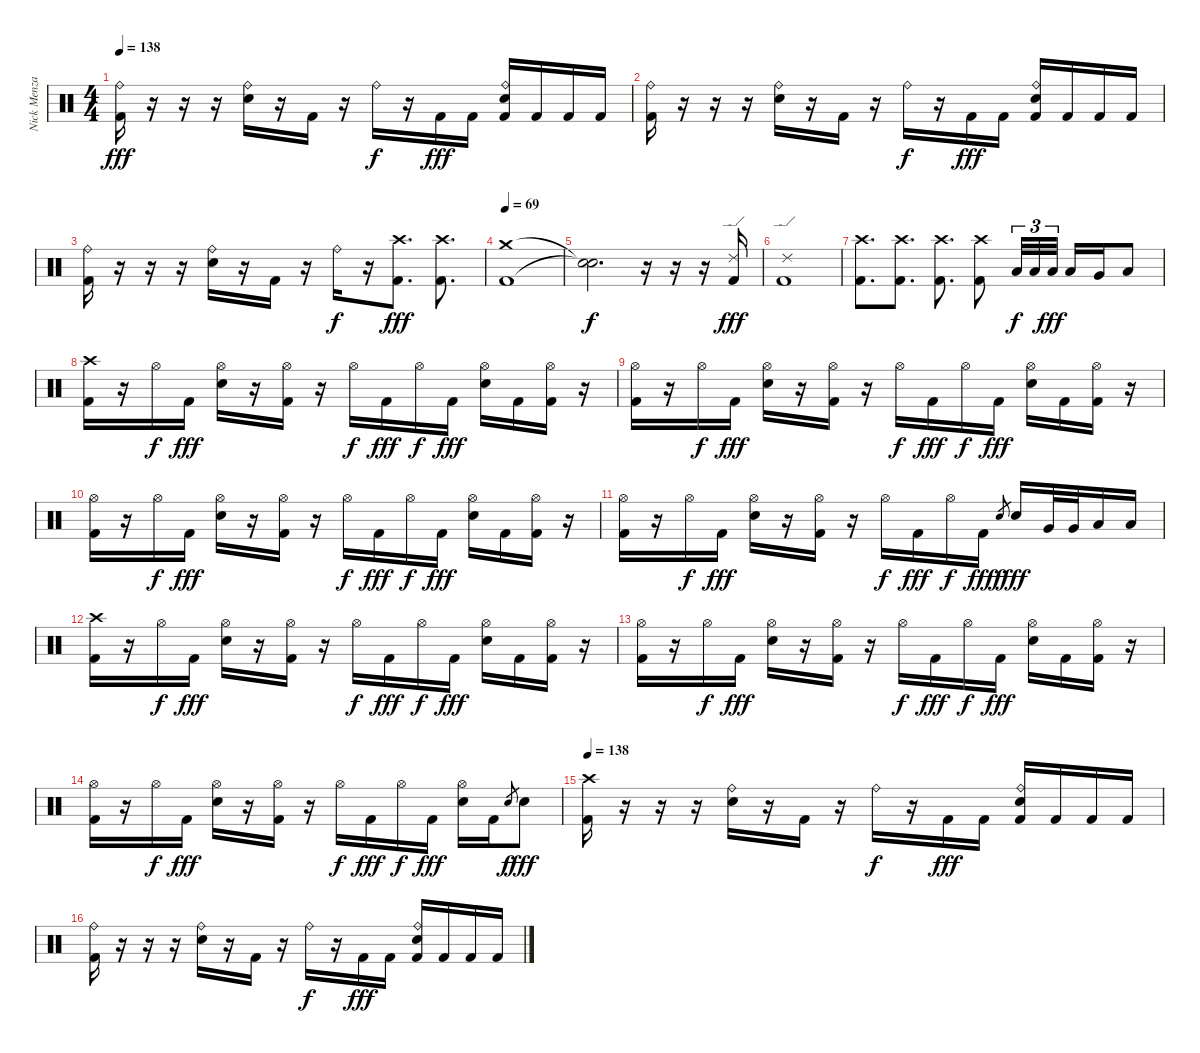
\track ("Nick Menza" "Nick Menza") {instrument percussion}
\staff {score}
\articulation defaults
\ts (4 4)
\tempo 138
\clef neutral
\ks c
("Kick (hit) 2" "Ride (bell)").16{dy fff} r.16 r.16 r.16 ("Electric Snare (hit)" "Ride (bell)").16 r.16 "Kick (hit) 2".16 r.16 "Ride (bell)".16{dy f} r.16 "Kick (hit) 2".16{dy fff} "Kick (hit) 2".16 ("Kick (hit) 2" "Electric Snare (hit)" "Ride (bell)").16 "Kick (hit) 2".16 "Kick (hit) 2".16 "Kick (hit) 2".16 |
("Kick (hit) 2" "Ride (bell)").16 r.16 r.16 r.16 ("Electric Snare (hit)" "Ride (bell)").16 r.16 "Kick (hit) 2".16 r.16 "Ride (bell)".16{dy f} r.16 "Kick (hit) 2".16{dy fff} "Kick (hit) 2".16 ("Kick (hit) 2" "Electric Snare (hit)" "Ride (bell)").16 "Kick (hit) 2".16 "Kick (hit) 2".16 "Kick (hit) 2".16 |
("Kick (hit) 2" "Ride (bell)").16 r.16 r.16 r.16 ("Electric Snare (hit)" "Ride (bell)").16 r.16 "Kick (hit) 2".16 r.16 "Ride (bell)".16{dy f} r.16 ("Kick (hit) 2" "Crash high (hit)").8{d dy fff} ("Kick (hit) 2" "Crash high (hit)").8{d} |
\tempo 69
("Kick (hit) 2" "Crash medium (hit)").1 |
("Snare (hit)"{t} "Snare (hit)"{t}).2{d dy f} r.16 r.16 r.16 ("Kick (hit) 2" "Ride (edge) 2").16{dy fff} |
("Kick (hit) 2" "Ride (edge) 2").1 |
("Kick (hit) 2" "Crash high (hit)").8{d} ("Kick (hit) 2" "Crash high (hit)").8{d} ("Kick (hit) 2" "Crash high (hit)").8{d} ("Kick (hit) 2" "Crash high (hit)").8 "Low Tom (hit)".32{tu (3 2) dy f} "Low Tom (hit)".32{tu (3 2)} "Low Tom (hit)".32{tu (3 2) dy fff} "Low Tom (hit)".16 "Very Low Tom (hit)".16 "Low Floor Tom (hit)".8 |
("Kick (hit) 2" "Crash high (hit)").16 r.16 "Hi-Hat (open)".16{dy f} "Kick (hit) 2".16{dy fff} ("Electric Snare (hit)" "Hi-Hat (open)").16 r.16 ("Kick (hit) 2" "Hi-Hat (open)").16 r.16 "Hi-Hat (open)".16{dy f} "Kick (hit) 2".16{dy fff} "Hi-Hat (open)".16{dy f} "Kick (hit) 2".16{dy fff} ("Electric Snare (hit)" "Hi-Hat (open)").16 "Kick (hit) 2".16 ("Kick (hit) 2" "Hi-Hat (open)").16 r.16 |
("Kick (hit) 2" "Hi-Hat (open)").16 r.16 "Hi-Hat (open)".16{dy f} "Kick (hit) 2".16{dy fff} ("Electric Snare (hit)" "Hi-Hat (open)").16 r.16 ("Kick (hit) 2" "Hi-Hat (open)").16 r.16 "Hi-Hat (open)".16{dy f} "Kick (hit) 2".16{dy fff} "Hi-Hat (open)".16{dy f} "Kick (hit) 2".16{dy fff} ("Electric Snare (hit)" "Hi-Hat (open)").16 "Kick (hit) 2".16 ("Kick (hit) 2" "Hi-Hat (open)").16 r.16 |
("Kick (hit) 2" "Hi-Hat (open)").16 r.16 "Hi-Hat (open)".16{dy f} "Kick (hit) 2".16{dy fff} ("Electric Snare (hit)" "Hi-Hat (open)").16 r.16 ("Kick (hit) 2" "Hi-Hat (open)").16 r.16 "Hi-Hat (open)".16{dy f} "Kick (hit) 2".16{dy fff} "Hi-Hat (open)".16{dy f} "Kick (hit) 2".16{dy fff} ("Electric Snare (hit)" "Hi-Hat (open)").16 "Kick (hit) 2".16 ("Kick (hit) 2" "Hi-Hat (open)").16 r.16 |
("Kick (hit) 2" "Hi-Hat (open)").16 r.16 "Hi-Hat (open)".16{dy f} "Kick (hit) 2".16{dy fff} ("Electric Snare (hit)" "Hi-Hat (open)").16 r.16 ("Kick (hit) 2" "Hi-Hat (open)").16 r.16 "Hi-Hat (open)".16{dy f} "Kick (hit) 2".16{dy fff} "Hi-Hat (open)".16{dy f} "Kick (hit) 2".16{dy fff} "Electric Snare (hit)".8{gr dy f} "Electric Snare (hit)".16{dy fff} "Very Low Tom (hit)".32 "Very Low Tom (hit)".32 "Low Floor Tom (hit)".16 "Low Floor Tom (hit)".16 |
("Kick (hit) 2" "Crash high (hit)").16 r.16 "Hi-Hat (open)".16{dy f} "Kick (hit) 2".16{dy fff} ("Electric Snare (hit)" "Hi-Hat (open)").16 r.16 ("Kick (hit) 2" "Hi-Hat (open)").16 r.16 "Hi-Hat (open)".16{dy f} "Kick (hit) 2".16{dy fff} "Hi-Hat (open)".16{dy f} "Kick (hit) 2".16{dy fff} ("Electric Snare (hit)" "Hi-Hat (open)").16 "Kick (hit) 2".16 ("Kick (hit) 2" "Hi-Hat (open)").16 r.16 |
("Kick (hit) 2" "Hi-Hat (open)").16 r.16 "Hi-Hat (open)".16{dy f} "Kick (hit) 2".16{dy fff} ("Electric Snare (hit)" "Hi-Hat (open)").16 r.16 ("Kick (hit) 2" "Hi-Hat (open)").16 r.16 "Hi-Hat (open)".16{dy f} "Kick (hit) 2".16{dy fff} "Hi-Hat (open)".16{dy f} "Kick (hit) 2".16{dy fff} ("Electric Snare (hit)" "Hi-Hat (open)").16 "Kick (hit) 2".16 ("Kick (hit) 2" "Hi-Hat (open)").16 r.16 |
("Kick (hit) 2" "Hi-Hat (open)").16 r.16 "Hi-Hat (open)".16{dy f} "Kick (hit) 2".16{dy fff} ("Electric Snare (hit)" "Hi-Hat (open)").16 r.16 ("Kick (hit) 2" "Hi-Hat (open)").16 r.16 "Hi-Hat (open)".16{dy f} "Kick (hit) 2".16{dy fff} "Hi-Hat (open)".16{dy f} "Kick (hit) 2".16{dy fff} ("Electric Snare (hit)" "Hi-Hat (open)").16 "Kick (hit) 2".16 "Electric Snare (hit)".8{gr dy f} "Electric Snare (hit)".8{dy fff} |
\tempo 138
("Kick (hit) 2" "Crash high (hit)").16 r.16 r.16 r.16 ("Electric Snare (hit)" "Ride (bell)").16 r.16 "Kick (hit) 2".16 r.16 "Ride (bell)".16{dy f} r.16 "Kick (hit) 2".16{dy fff} "Kick (hit) 2".16 ("Kick (hit) 2" "Electric Snare (hit)" "Ride (bell)").16 "Kick (hit) 2".16 "Kick (hit) 2".16 "Kick (hit) 2".16 |
("Kick (hit) 2" "Ride (bell)").16 r.16 r.16 r.16 ("Electric Snare (hit)" "Ride (bell)").16 r.16 "Kick (hit) 2".16 r.16 "Ride (bell)".16{dy f} r.16 "Kick (hit) 2".16{dy fff} "Kick (hit) 2".16 ("Kick (hit) 2" "Electric Snare (hit)" "Ride (bell)").16 "Kick (hit) 2".16 "Kick (hit) 2".16 "Kick (hit) 2".16
